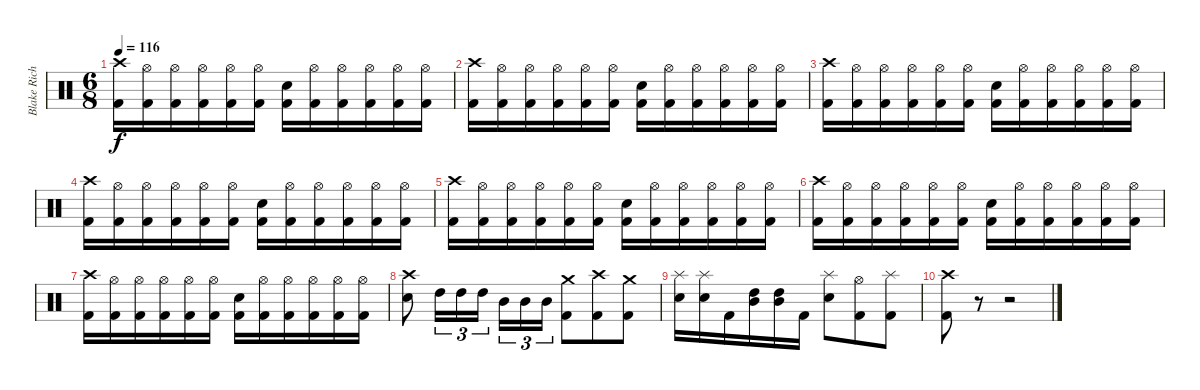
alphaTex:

\track ("Blake Richardson" "Blake Rich") {instrument percussion}
\staff {score}
\articulation defaults
\ts (6 8)
\tempo 116
\clef neutral
\ks c
("Crash high (hit)" "Kick (hit) 2").16{dy f} ("Hi-Hat (open)" "Kick (hit) 2").16 ("Hi-Hat (open)" "Kick (hit) 2").16 ("Hi-Hat (open)" "Kick (hit) 2").16 ("Hi-Hat (open)" "Kick (hit) 2").16 ("Hi-Hat (open)" "Kick (hit) 2").16 ("Electric Snare (hit)" "Kick (hit) 2").16 ("Hi-Hat (open)" "Kick (hit) 2").16 ("Hi-Hat (open)" "Kick (hit) 2").16 ("Hi-Hat (open)" "Kick (hit) 2").16 ("Hi-Hat (open)" "Kick (hit) 2").16 ("Hi-Hat (open)" "Kick (hit) 2").16 |
("Crash high (hit)" "Kick (hit) 2").16 ("Hi-Hat (open)" "Kick (hit) 2").16 ("Hi-Hat (open)" "Kick (hit) 2").16 ("Hi-Hat (open)" "Kick (hit) 2").16 ("Hi-Hat (open)" "Kick (hit) 2").16 ("Hi-Hat (open)" "Kick (hit) 2").16 ("Electric Snare (hit)" "Kick (hit) 2").16 ("Hi-Hat (open)" "Kick (hit) 2").16 ("Hi-Hat (open)" "Kick (hit) 2").16 ("Hi-Hat (open)" "Kick (hit) 2").16 ("Hi-Hat (open)" "Kick (hit) 2").16 ("Hi-Hat (open)" "Kick (hit) 2").16 |
("Crash high (hit)" "Kick (hit) 2").16 ("Hi-Hat (open)" "Kick (hit) 2").16 ("Hi-Hat (open)" "Kick (hit) 2").16 ("Hi-Hat (open)" "Kick (hit) 2").16 ("Hi-Hat (open)" "Kick (hit) 2").16 ("Hi-Hat (open)" "Kick (hit) 2").16 ("Electric Snare (hit)" "Kick (hit) 2").16 ("Hi-Hat (open)" "Kick (hit) 2").16 ("Hi-Hat (open)" "Kick (hit) 2").16 ("Hi-Hat (open)" "Kick (hit) 2").16 ("Hi-Hat (open)" "Kick (hit) 2").16 ("Hi-Hat (open)" "Kick (hit) 2").16 |
("Crash high (hit)" "Kick (hit) 2").16 ("Hi-Hat (open)" "Kick (hit) 2").16 ("Hi-Hat (open)" "Kick (hit) 2").16 ("Hi-Hat (open)" "Kick (hit) 2").16 ("Hi-Hat (open)" "Kick (hit) 2").16 ("Hi-Hat (open)" "Kick (hit) 2").16 ("Electric Snare (hit)" "Kick (hit) 2").16 ("Hi-Hat (open)" "Kick (hit) 2").16 ("Hi-Hat (open)" "Kick (hit) 2").16 ("Hi-Hat (open)" "Kick (hit) 2").16 ("Hi-Hat (open)" "Kick (hit) 2").16 ("Hi-Hat (open)" "Kick (hit) 2").16 |
("Crash high (hit)" "Kick (hit) 2").16 ("Hi-Hat (open)" "Kick (hit) 2").16 ("Hi-Hat (open)" "Kick (hit) 2").16 ("Hi-Hat (open)" "Kick (hit) 2").16 ("Hi-Hat (open)" "Kick (hit) 2").16 ("Hi-Hat (open)" "Kick (hit) 2").16 ("Electric Snare (hit)" "Kick (hit) 2").16 ("Hi-Hat (open)" "Kick (hit) 2").16 ("Hi-Hat (open)" "Kick (hit) 2").16 ("Hi-Hat (open)" "Kick (hit) 2").16 ("Hi-Hat (open)" "Kick (hit) 2").16 ("Hi-Hat (open)" "Kick (hit) 2").16 |
("Crash high (hit)" "Kick (hit) 2").16 ("Hi-Hat (open)" "Kick (hit) 2").16 ("Hi-Hat (open)" "Kick (hit) 2").16 ("Hi-Hat (open)" "Kick (hit) 2").16 ("Hi-Hat (open)" "Kick (hit) 2").16 ("Hi-Hat (open)" "Kick (hit) 2").16 ("Electric Snare (hit)" "Kick (hit) 2").16 ("Hi-Hat (open)" "Kick (hit) 2").16 ("Hi-Hat (open)" "Kick (hit) 2").16 ("Hi-Hat (open)" "Kick (hit) 2").16 ("Hi-Hat (open)" "Kick (hit) 2").16 ("Hi-Hat (open)" "Kick (hit) 2").16 |
("Crash high (hit)" "Kick (hit) 2").16 ("Hi-Hat (open)" "Kick (hit) 2").16 ("Hi-Hat (open)" "Kick (hit) 2").16 ("Hi-Hat (open)" "Kick (hit) 2").16 ("Hi-Hat (open)" "Kick (hit) 2").16 ("Hi-Hat (open)" "Kick (hit) 2").16 ("Electric Snare (hit)" "Kick (hit) 2").16 ("Hi-Hat (open)" "Kick (hit) 2").16 ("Hi-Hat (open)" "Kick (hit) 2").16 ("Hi-Hat (open)" "Kick (hit) 2").16 ("Hi-Hat (open)" "Kick (hit) 2").16 ("Hi-Hat (open)" "Kick (hit) 2").16 |
("Crash high (hit)" "Electric Snare (hit)").8 "High Tom (hit)".16{tu (3 2)} "High Tom (hit)".16{tu (3 2)} "High Tom (hit)".16{tu (3 2) beam splitsecondary} "Mid Tom (hit)".16{tu (3 2)} "Mid Tom (hit)".16{tu (3 2)} "Mid Tom (hit)".16{tu (3 2)} ("Crash medium (hit)" "Kick (hit) 2").8 ("Crash high (hit)" "Kick (hit) 2").8 ("Crash medium (hit)" "Kick (hit) 2").8 |
("Splash (hit)" "Electric Snare (hit)").16 ("Splash (hit)" "Electric Snare (hit)").16 "Kick (hit) 2".16 ("High Tom (hit)" "Mid Tom (hit)").16 ("High Tom (hit)" "Mid Tom (hit)").16 "Kick (hit) 2".16 ("Splash (hit)" "Electric Snare (hit)").8 ("Hi-Hat (open)" "Kick (hit) 2").8 ("Splash (hit)" "Kick (hit) 2").8 |
("Crash high (hit)" "Kick (hit) 2").8 r.8{volume 0} r.2
